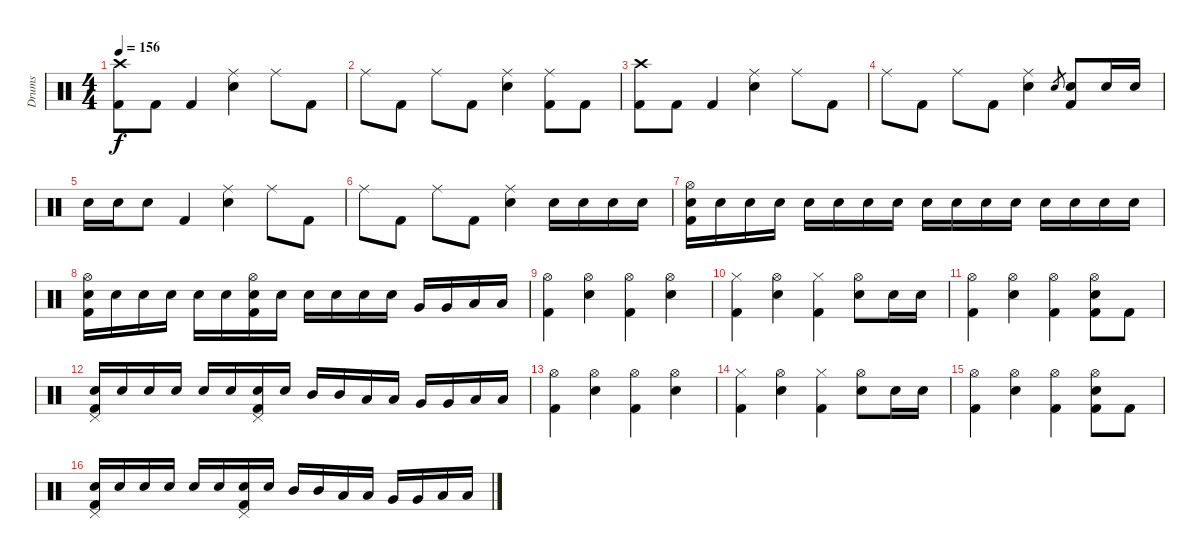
\track ("Drums" "Drums") {instrument percussion}
\staff {score}
\articulation defaults
\ts (4 4)
\tempo 156
\clef neutral
\ks c
("Crash high (hit)" "Kick (hit) 2").8{dy f} "Kick (hit) 2".8 "Kick (hit) 2".4 ("Ride (middle)" "Electric Snare (hit)").4 "Ride (middle)".8 "Kick (hit) 2".8 |
"Ride (middle)".8 "Kick (hit) 2".8 "Ride (middle)".8 "Kick (hit) 2".8 ("Ride (middle)" "Electric Snare (hit)").4 ("Ride (middle)" "Kick (hit) 2").8 "Kick (hit) 2".8 |
("Crash high (hit)" "Kick (hit) 2").8 "Kick (hit) 2".8 "Kick (hit) 2".4 ("Ride (middle)" "Electric Snare (hit)").4 "Ride (middle)".8 "Kick (hit) 2".8 |
"Ride (middle)".8 "Kick (hit) 2".8 "Ride (middle)".8 "Kick (hit) 2".8 ("Ride (middle)" "Electric Snare (hit)").4 "Electric Snare (hit)".8{gr} ("Electric Snare (hit)" "Kick (hit) 2").8 "Electric Snare (hit)".16 "Electric Snare (hit)".16 |
"Electric Snare (hit)".16 "Electric Snare (hit)".16 "Electric Snare (hit)".8 "Kick (hit) 2".4 ("Ride (middle)" "Electric Snare (hit)").4 "Ride (middle)".8 "Kick (hit) 2".8 |
"Ride (middle)".8 "Kick (hit) 2".8 "Ride (middle)".8 "Kick (hit) 2".8 ("Ride (middle)" "Electric Snare (hit)").4 "Electric Snare (hit)".16 "Electric Snare (hit)".16 "Electric Snare (hit)".16 "Electric Snare (hit)".16 |
("Hi-Hat (open)" "Electric Snare (hit)" "Kick (hit) 2").16 "Electric Snare (hit)".16 "Electric Snare (hit)".16 "Electric Snare (hit)".16 "Electric Snare (hit)".16 "Electric Snare (hit)".16 "Electric Snare (hit)".16 "Electric Snare (hit)".16 "Electric Snare (hit)".16 "Electric Snare (hit)".16 "Electric Snare (hit)".16 "Electric Snare (hit)".16 "Electric Snare (hit)".16 "Electric Snare (hit)".16 "Electric Snare (hit)".16 "Electric Snare (hit)".16 |
("Hi-Hat (open)" "Electric Snare (hit)" "Kick (hit) 2").16 "Electric Snare (hit)".16 "Electric Snare (hit)".16 "Electric Snare (hit)".16 "Electric Snare (hit)".16 "Electric Snare (hit)".16 ("Hi-Hat (open)" "Electric Snare (hit)" "Kick (hit) 2").16 "Electric Snare (hit)".16 "Electric Snare (hit)".16 "Electric Snare (hit)".16 "Electric Snare (hit)".16 "Electric Snare (hit)".16 "Very Low Tom (hit)".16 "Very Low Tom (hit)".16 "Low Floor Tom (hit)".16 "Low Floor Tom (hit)".16 |
("Hi-Hat (open)" "Kick (hit) 2").4 ("Hi-Hat (open)" "Electric Snare (hit)").4 ("Hi-Hat (open)" "Kick (hit) 2").4 ("Hi-Hat (open)" "Electric Snare (hit)").4 |
("Hi-Hat (closed)" "Kick (hit) 2").4 ("Hi-Hat (open)" "Electric Snare (hit)").4 ("Hi-Hat (closed)" "Kick (hit) 2").4 ("Hi-Hat (open)" "Electric Snare (hit)").8 "Electric Snare (hit)".16 "Electric Snare (hit)".16 |
("Hi-Hat (open)" "Kick (hit) 2").4 ("Hi-Hat (open)" "Electric Snare (hit)").4 ("Hi-Hat (open)" "Kick (hit) 2").4 ("Hi-Hat (open)" "Electric Snare (hit)" "Kick (hit) 2").8 "Kick (hit) 2".8 |
("Pedal Hi-Hat (hit)" "Electric Snare (hit)" "Kick (hit) 2").16 "Electric Snare (hit)".16 "Electric Snare (hit)".16 "Electric Snare (hit)".16 "Electric Snare (hit)".16 "Electric Snare (hit)".16 ("Pedal Hi-Hat (hit)" "Electric Snare (hit)" "Kick (hit) 2").16 "Electric Snare (hit)".16 "Mid Tom (hit)".16 "Mid Tom (hit)".16 "Low Tom (hit)".16 "Low Tom (hit)".16 "Very Low Tom (hit)".16 "Very Low Tom (hit)".16 "Low Floor Tom (hit)".16 "Low Floor Tom (hit)".16 |
("Hi-Hat (open)" "Kick (hit) 2").4 ("Hi-Hat (open)" "Electric Snare (hit)").4 ("Hi-Hat (open)" "Kick (hit) 2").4 ("Hi-Hat (open)" "Electric Snare (hit)").4 |
("Hi-Hat (closed)" "Kick (hit) 2").4 ("Hi-Hat (open)" "Electric Snare (hit)").4 ("Hi-Hat (closed)" "Kick (hit) 2").4 ("Hi-Hat (open)" "Electric Snare (hit)").8 "Electric Snare (hit)".16 "Electric Snare (hit)".16 |
("Hi-Hat (open)" "Kick (hit) 2").4 ("Hi-Hat (open)" "Electric Snare (hit)").4 ("Hi-Hat (open)" "Kick (hit) 2").4 ("Hi-Hat (open)" "Electric Snare (hit)" "Kick (hit) 2").8 "Kick (hit) 2".8 |
("Pedal Hi-Hat (hit)" "Electric Snare (hit)" "Kick (hit) 2").16 "Electric Snare (hit)".16 "Electric Snare (hit)".16 "Electric Snare (hit)".16 "Electric Snare (hit)".16 "Electric Snare (hit)".16 ("Pedal Hi-Hat (hit)" "Electric Snare (hit)" "Kick (hit) 2").16 "Electric Snare (hit)".16 "Mid Tom (hit)".16 "Mid Tom (hit)".16 "Low Tom (hit)".16 "Low Tom (hit)".16 "Very Low Tom (hit)".16 "Very Low Tom (hit)".16 "Low Floor Tom (hit)".16 "Low Floor Tom (hit)".16
